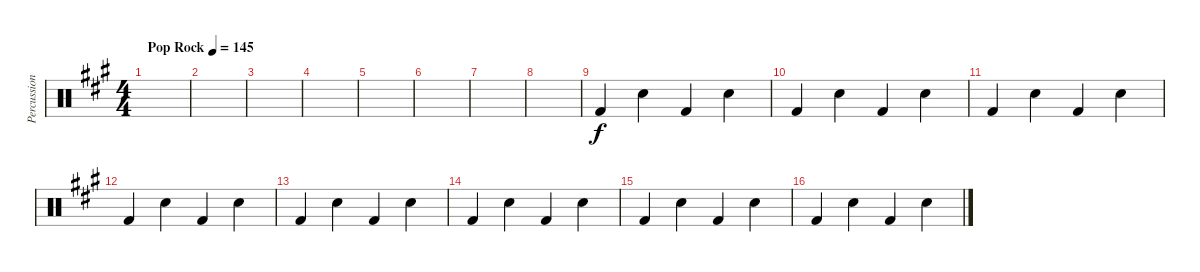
\track ("Percussion" "Percussion") {instrument percussion}
\staff {score}
\articulation defaults
\ts (4 4)
\tempo (145 "Pop Rock")
\clef neutral
\ks a
|
|
|
|
|
|
|
|
"Kick (hit) 2".4 "Snare (hit) 2".4 "Kick (hit) 2".4 "Snare (hit) 2".4 |
"Kick (hit) 2".4 "Snare (hit) 2".4 "Kick (hit) 2".4 "Snare (hit) 2".4 |
"Kick (hit) 2".4 "Snare (hit) 2".4 "Kick (hit) 2".4 "Snare (hit) 2".4 |
"Kick (hit) 2".4 "Snare (hit) 2".4 "Kick (hit) 2".4 "Snare (hit) 2".4 |
"Kick (hit) 2".4 "Snare (hit) 2".4 "Kick (hit) 2".4 "Snare (hit) 2".4 |
"Kick (hit) 2".4 "Snare (hit) 2".4 "Kick (hit) 2".4 "Snare (hit) 2".4 |
"Kick (hit) 2".4 "Snare (hit) 2".4 "Kick (hit) 2".4 "Snare (hit) 2".4 |
"Kick (hit) 2".4 "Snare (hit) 2".4 "Kick (hit) 2".4 "Snare (hit) 2".4
